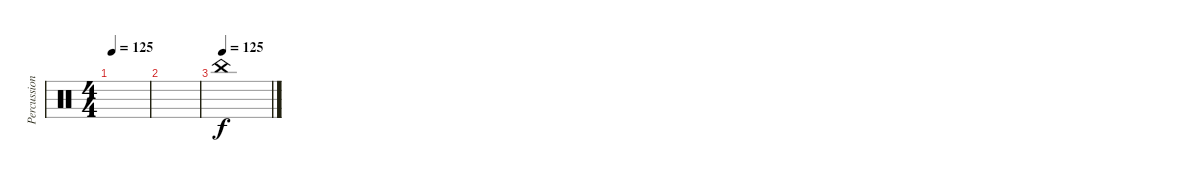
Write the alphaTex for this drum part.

\track ("Percussion" "Percussion") {instrument percussion}
\staff {score}
\articulation defaults
\ts (4 4)
\tempo 125
\clef neutral
\ks c
|
|
\tempo (125)
"China (hit)".1
